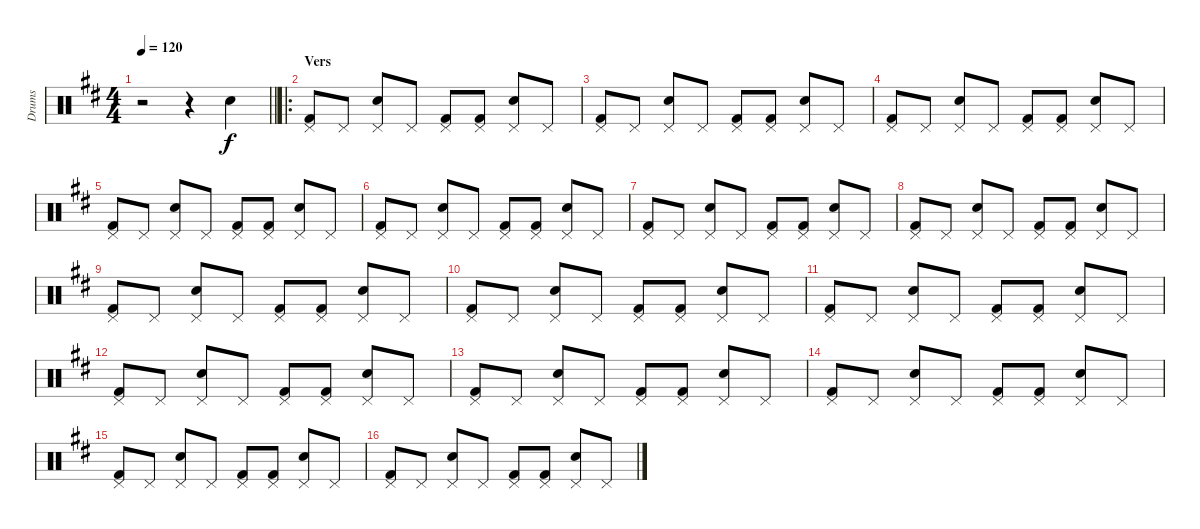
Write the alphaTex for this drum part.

\track ("Drums" "Drums") {instrument percussion}
\staff {score}
\articulation defaults
\ts (4 4)
\tempo 120
\clef neutral
\barLineRight lightlight
\ks d
r.2{dy f} r.4 "Electric Snare (hit)".4 |
\ro
\section ("" "Vers")
("Pedal Hi-Hat (hit)" "Kick (hit) 2").8 "Pedal Hi-Hat (hit)".8 ("Pedal Hi-Hat (hit)" "Electric Snare (hit)").8 "Pedal Hi-Hat (hit)".8 ("Pedal Hi-Hat (hit)" "Kick (hit) 2").8 ("Pedal Hi-Hat (hit)" "Kick (hit) 2").8 ("Pedal Hi-Hat (hit)" "Electric Snare (hit)").8 "Pedal Hi-Hat (hit)".8 |
("Pedal Hi-Hat (hit)" "Kick (hit) 2").8 "Pedal Hi-Hat (hit)".8 ("Pedal Hi-Hat (hit)" "Electric Snare (hit)").8 "Pedal Hi-Hat (hit)".8 ("Pedal Hi-Hat (hit)" "Kick (hit) 2").8 ("Pedal Hi-Hat (hit)" "Kick (hit) 2").8 ("Pedal Hi-Hat (hit)" "Electric Snare (hit)").8 "Pedal Hi-Hat (hit)".8 |
("Pedal Hi-Hat (hit)" "Kick (hit) 2").8 "Pedal Hi-Hat (hit)".8 ("Pedal Hi-Hat (hit)" "Electric Snare (hit)").8 "Pedal Hi-Hat (hit)".8 ("Pedal Hi-Hat (hit)" "Kick (hit) 2").8 ("Pedal Hi-Hat (hit)" "Kick (hit) 2").8 ("Pedal Hi-Hat (hit)" "Electric Snare (hit)").8 "Pedal Hi-Hat (hit)".8 |
("Pedal Hi-Hat (hit)" "Kick (hit) 2").8 "Pedal Hi-Hat (hit)".8 ("Pedal Hi-Hat (hit)" "Electric Snare (hit)").8 "Pedal Hi-Hat (hit)".8 ("Pedal Hi-Hat (hit)" "Kick (hit) 2").8 ("Pedal Hi-Hat (hit)" "Kick (hit) 2").8 ("Pedal Hi-Hat (hit)" "Electric Snare (hit)").8 "Pedal Hi-Hat (hit)".8 |
("Pedal Hi-Hat (hit)" "Kick (hit) 2").8 "Pedal Hi-Hat (hit)".8 ("Pedal Hi-Hat (hit)" "Electric Snare (hit)").8 "Pedal Hi-Hat (hit)".8 ("Pedal Hi-Hat (hit)" "Kick (hit) 2").8 ("Pedal Hi-Hat (hit)" "Kick (hit) 2").8 ("Pedal Hi-Hat (hit)" "Electric Snare (hit)").8 "Pedal Hi-Hat (hit)".8 |
("Pedal Hi-Hat (hit)" "Kick (hit) 2").8 "Pedal Hi-Hat (hit)".8 ("Pedal Hi-Hat (hit)" "Electric Snare (hit)").8 "Pedal Hi-Hat (hit)".8 ("Pedal Hi-Hat (hit)" "Kick (hit) 2").8 ("Pedal Hi-Hat (hit)" "Kick (hit) 2").8 ("Pedal Hi-Hat (hit)" "Electric Snare (hit)").8 "Pedal Hi-Hat (hit)".8 |
("Pedal Hi-Hat (hit)" "Kick (hit) 2").8 "Pedal Hi-Hat (hit)".8 ("Pedal Hi-Hat (hit)" "Electric Snare (hit)").8 "Pedal Hi-Hat (hit)".8 ("Pedal Hi-Hat (hit)" "Kick (hit) 2").8 ("Pedal Hi-Hat (hit)" "Kick (hit) 2").8 ("Pedal Hi-Hat (hit)" "Electric Snare (hit)").8 "Pedal Hi-Hat (hit)".8 |
("Pedal Hi-Hat (hit)" "Kick (hit) 2").8 "Pedal Hi-Hat (hit)".8 ("Pedal Hi-Hat (hit)" "Electric Snare (hit)").8 "Pedal Hi-Hat (hit)".8 ("Pedal Hi-Hat (hit)" "Kick (hit) 2").8 ("Pedal Hi-Hat (hit)" "Kick (hit) 2").8 ("Pedal Hi-Hat (hit)" "Electric Snare (hit)").8 "Pedal Hi-Hat (hit)".8 |
("Pedal Hi-Hat (hit)" "Kick (hit) 2").8 "Pedal Hi-Hat (hit)".8 ("Pedal Hi-Hat (hit)" "Electric Snare (hit)").8 "Pedal Hi-Hat (hit)".8 ("Pedal Hi-Hat (hit)" "Kick (hit) 2").8 ("Pedal Hi-Hat (hit)" "Kick (hit) 2").8 ("Pedal Hi-Hat (hit)" "Electric Snare (hit)").8 "Pedal Hi-Hat (hit)".8 |
("Pedal Hi-Hat (hit)" "Kick (hit) 2").8 "Pedal Hi-Hat (hit)".8 ("Pedal Hi-Hat (hit)" "Electric Snare (hit)").8 "Pedal Hi-Hat (hit)".8 ("Pedal Hi-Hat (hit)" "Kick (hit) 2").8 ("Pedal Hi-Hat (hit)" "Kick (hit) 2").8 ("Pedal Hi-Hat (hit)" "Electric Snare (hit)").8 "Pedal Hi-Hat (hit)".8 |
("Pedal Hi-Hat (hit)" "Kick (hit) 2").8 "Pedal Hi-Hat (hit)".8 ("Pedal Hi-Hat (hit)" "Electric Snare (hit)").8 "Pedal Hi-Hat (hit)".8 ("Pedal Hi-Hat (hit)" "Kick (hit) 2").8 ("Pedal Hi-Hat (hit)" "Kick (hit) 2").8 ("Pedal Hi-Hat (hit)" "Electric Snare (hit)").8 "Pedal Hi-Hat (hit)".8 |
("Pedal Hi-Hat (hit)" "Kick (hit) 2").8 "Pedal Hi-Hat (hit)".8 ("Pedal Hi-Hat (hit)" "Electric Snare (hit)").8 "Pedal Hi-Hat (hit)".8 ("Pedal Hi-Hat (hit)" "Kick (hit) 2").8 ("Pedal Hi-Hat (hit)" "Kick (hit) 2").8 ("Pedal Hi-Hat (hit)" "Electric Snare (hit)").8 "Pedal Hi-Hat (hit)".8 |
("Pedal Hi-Hat (hit)" "Kick (hit) 2").8 "Pedal Hi-Hat (hit)".8 ("Pedal Hi-Hat (hit)" "Electric Snare (hit)").8 "Pedal Hi-Hat (hit)".8 ("Pedal Hi-Hat (hit)" "Kick (hit) 2").8 ("Pedal Hi-Hat (hit)" "Kick (hit) 2").8 ("Pedal Hi-Hat (hit)" "Electric Snare (hit)").8 "Pedal Hi-Hat (hit)".8 |
("Pedal Hi-Hat (hit)" "Kick (hit) 2").8 "Pedal Hi-Hat (hit)".8 ("Pedal Hi-Hat (hit)" "Electric Snare (hit)").8 "Pedal Hi-Hat (hit)".8 ("Pedal Hi-Hat (hit)" "Kick (hit) 2").8 ("Pedal Hi-Hat (hit)" "Kick (hit) 2").8 ("Pedal Hi-Hat (hit)" "Electric Snare (hit)").8 "Pedal Hi-Hat (hit)".8 |
("Pedal Hi-Hat (hit)" "Kick (hit) 2").8 "Pedal Hi-Hat (hit)".8 ("Pedal Hi-Hat (hit)" "Electric Snare (hit)").8 "Pedal Hi-Hat (hit)".8 ("Pedal Hi-Hat (hit)" "Kick (hit) 2").8 ("Pedal Hi-Hat (hit)" "Kick (hit) 2").8 ("Pedal Hi-Hat (hit)" "Electric Snare (hit)").8 "Pedal Hi-Hat (hit)".8
